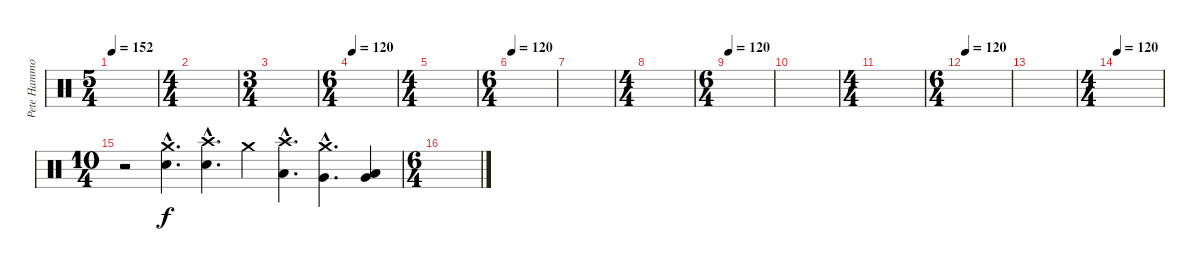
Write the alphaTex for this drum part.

\track ("Pete Hammoura 2" "Pete Hammo") {instrument percussion}
\staff {score}
\articulation defaults
\ts (5 4)
\tempo 152
\clef neutral
\ks c
|
\ts (4 4)
|
\ts (3 4)
|
\ts (6 4)
\tempo 120
|
\ts (4 4)
|
\ts (6 4)
\tempo 120
|
|
\ts (4 4)
|
\ts (6 4)
\tempo 120
|
|
\ts (4 4)
|
\ts (6 4)
\tempo 120
|
|
\ts (4 4)
\tempo 120
|
\ts (10 4)
r.2 ("Crash medium (hit)"{hac} "Electric Snare (hit)"{hac}).4{d} ("Crash high (hit)"{hac} "Electric Snare (hit)"{hac}).4{d} "Crash medium (hit)".4 ("Crash high (hit)"{hac} "Low Tom (hit)"{hac}).4{d} ("Crash medium (hit)"{hac} "Very Low Tom (hit)"{hac}).4{d} ("Very Low Tom (hit)" "Low Floor Tom (hit)").4 |
\ts (6 4)
